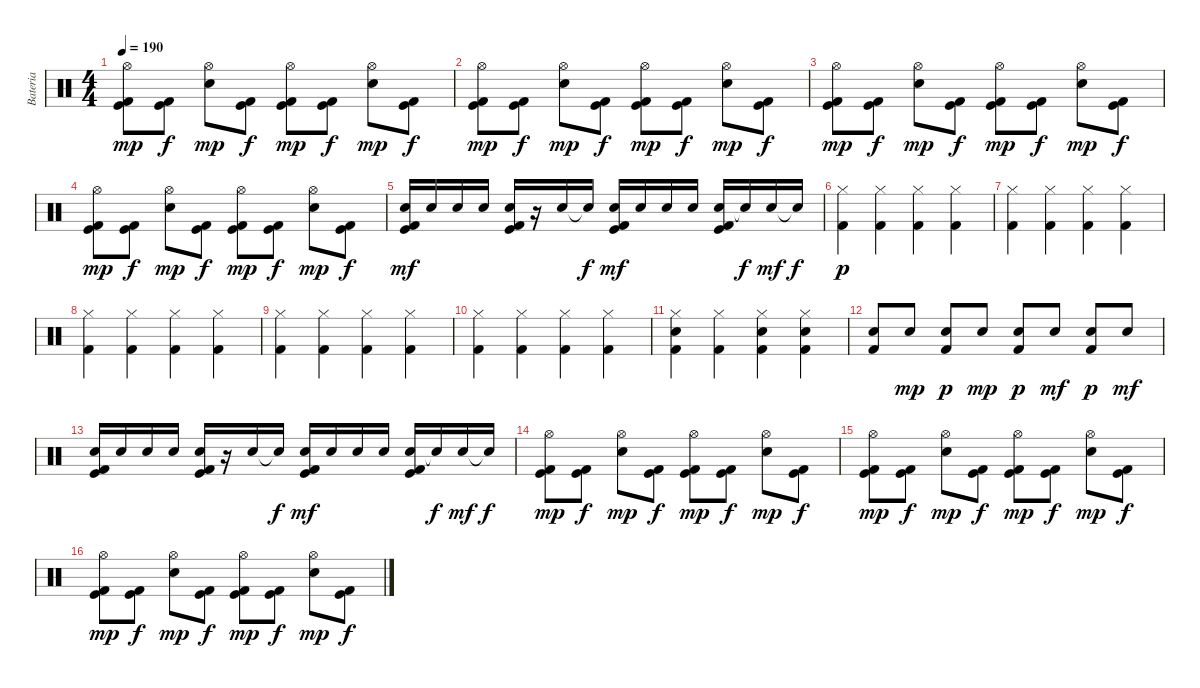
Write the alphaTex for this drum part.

\track ("Bateria" "Bateria") {instrument percussion}
\staff {score}
\articulation defaults
\ts (4 4)
\tempo 190
\clef neutral
\ks c
("Kick (hit) 2" "Kick (hit)" "Hi-Hat (open)").8{dy mp} ("Kick (hit)" "Kick (hit) 2").8{dy f} ("Electric Snare (hit)" "Hi-Hat (open)").8{dy mp} ("Kick (hit) 2" "Kick (hit)").8{dy f} ("Kick (hit) 2" "Kick (hit)" "Hi-Hat (open)").8{dy mp} ("Kick (hit)" "Kick (hit) 2").8{dy f} ("Electric Snare (hit)" "Hi-Hat (open)").8{dy mp} ("Kick (hit)" "Kick (hit) 2").8{dy f} |
("Kick (hit) 2" "Kick (hit)" "Hi-Hat (open)").8{dy mp} ("Kick (hit)" "Kick (hit) 2").8{dy f} ("Electric Snare (hit)" "Hi-Hat (open)").8{dy mp} ("Kick (hit) 2" "Kick (hit)").8{dy f} ("Kick (hit) 2" "Kick (hit)" "Hi-Hat (open)").8{dy mp} ("Kick (hit)" "Kick (hit) 2").8{dy f} ("Electric Snare (hit)" "Hi-Hat (open)").8{dy mp} ("Kick (hit)" "Kick (hit) 2").8{dy f} |
("Kick (hit) 2" "Kick (hit)" "Hi-Hat (open)").8{dy mp} ("Kick (hit)" "Kick (hit) 2").8{dy f} ("Electric Snare (hit)" "Hi-Hat (open)").8{dy mp} ("Kick (hit) 2" "Kick (hit)").8{dy f} ("Kick (hit) 2" "Kick (hit)" "Hi-Hat (open)").8{dy mp} ("Kick (hit)" "Kick (hit) 2").8{dy f} ("Electric Snare (hit)" "Hi-Hat (open)").8{dy mp} ("Kick (hit)" "Kick (hit) 2").8{dy f} |
("Kick (hit) 2" "Kick (hit)" "Hi-Hat (open)").8{dy mp} ("Kick (hit)" "Kick (hit) 2").8{dy f} ("Electric Snare (hit)" "Hi-Hat (open)").8{dy mp} ("Kick (hit) 2" "Kick (hit)").8{dy f} ("Kick (hit) 2" "Kick (hit)" "Hi-Hat (open)").8{dy mp} ("Kick (hit)" "Kick (hit) 2").8{dy f} ("Electric Snare (hit)" "Hi-Hat (open)").8{dy mp} ("Kick (hit)" "Kick (hit) 2").8{dy f} |
("Electric Snare (hit)" "Kick (hit)" "Kick (hit) 2").16{dy mf} "Electric Snare (hit)".16 "Electric Snare (hit)".16 "Electric Snare (hit)".16 ("Electric Snare (hit)" "Kick (hit)" "Kick (hit) 2").16 r.16 "Electric Snare (hit)".16 "Electric Snare (hit)"{t}.16{dy f} ("Electric Snare (hit)" "Kick (hit)" "Kick (hit) 2").16{dy mf} "Electric Snare (hit)".16 "Electric Snare (hit)".16 "Electric Snare (hit)".16 ("Electric Snare (hit)" "Kick (hit)" "Kick (hit) 2").16 "Electric Snare (hit)"{t}.16{dy f} "Electric Snare (hit)".16{dy mf} "Electric Snare (hit)"{t}.16{dy f} |
("Hi-Hat (closed)" "Kick (hit) 2").4{dy p} ("Hi-Hat (closed)" "Kick (hit) 2").4 ("Hi-Hat (closed)" "Kick (hit) 2").4 ("Hi-Hat (closed)" "Kick (hit) 2").4 |
("Hi-Hat (closed)" "Kick (hit) 2").4 ("Hi-Hat (closed)" "Kick (hit) 2").4 ("Hi-Hat (closed)" "Kick (hit) 2").4 ("Hi-Hat (closed)" "Kick (hit) 2").4 |
("Hi-Hat (closed)" "Kick (hit) 2").4 ("Hi-Hat (closed)" "Kick (hit) 2").4 ("Hi-Hat (closed)" "Kick (hit) 2").4 ("Hi-Hat (closed)" "Kick (hit) 2").4 |
("Hi-Hat (closed)" "Kick (hit) 2").4 ("Hi-Hat (closed)" "Kick (hit) 2").4 ("Hi-Hat (closed)" "Kick (hit) 2").4 ("Hi-Hat (closed)" "Kick (hit) 2").4 |
("Hi-Hat (closed)" "Kick (hit) 2").4 ("Hi-Hat (closed)" "Kick (hit) 2").4 ("Hi-Hat (closed)" "Kick (hit) 2").4 ("Hi-Hat (closed)" "Kick (hit) 2").4 |
("Hi-Hat (closed)" "Electric Snare (hit)" "Kick (hit) 2").4 ("Hi-Hat (closed)" "Kick (hit) 2").4 ("Hi-Hat (closed)" "Electric Snare (hit)" "Kick (hit) 2").4 ("Hi-Hat (closed)" "Electric Snare (hit)" "Kick (hit) 2").4 |
("Electric Snare (hit)" "Kick (hit) 2").8 "Electric Snare (hit)".8{dy mp} ("Electric Snare (hit)" "Kick (hit) 2").8{dy p} "Electric Snare (hit)".8{dy mp} ("Electric Snare (hit)" "Kick (hit) 2").8{dy p} "Electric Snare (hit)".8{dy mf} ("Electric Snare (hit)" "Kick (hit) 2").8{dy p} "Electric Snare (hit)".8{dy mf} |
("Electric Snare (hit)" "Kick (hit)" "Kick (hit) 2").16 "Electric Snare (hit)".16 "Electric Snare (hit)".16 "Electric Snare (hit)".16 ("Electric Snare (hit)" "Kick (hit)" "Kick (hit) 2").16 r.16 "Electric Snare (hit)".16 "Electric Snare (hit)"{t}.16{dy f} ("Electric Snare (hit)" "Kick (hit)" "Kick (hit) 2").16{dy mf} "Electric Snare (hit)".16 "Electric Snare (hit)".16 "Electric Snare (hit)".16 ("Electric Snare (hit)" "Kick (hit)" "Kick (hit) 2").16 "Electric Snare (hit)"{t}.16{dy f} "Electric Snare (hit)".16{dy mf} "Electric Snare (hit)"{t}.16{dy f} |
("Kick (hit) 2" "Kick (hit)" "Hi-Hat (open)").8{dy mp} ("Kick (hit)" "Kick (hit) 2").8{dy f} ("Electric Snare (hit)" "Hi-Hat (open)").8{dy mp} ("Kick (hit) 2" "Kick (hit)").8{dy f} ("Kick (hit) 2" "Kick (hit)" "Hi-Hat (open)").8{dy mp} ("Kick (hit)" "Kick (hit) 2").8{dy f} ("Electric Snare (hit)" "Hi-Hat (open)").8{dy mp} ("Kick (hit)" "Kick (hit) 2").8{dy f} |
("Kick (hit) 2" "Kick (hit)" "Hi-Hat (open)").8{dy mp} ("Kick (hit)" "Kick (hit) 2").8{dy f} ("Electric Snare (hit)" "Hi-Hat (open)").8{dy mp} ("Kick (hit) 2" "Kick (hit)").8{dy f} ("Kick (hit) 2" "Kick (hit)" "Hi-Hat (open)").8{dy mp} ("Kick (hit)" "Kick (hit) 2").8{dy f} ("Electric Snare (hit)" "Hi-Hat (open)").8{dy mp} ("Kick (hit)" "Kick (hit) 2").8{dy f} |
("Kick (hit) 2" "Kick (hit)" "Hi-Hat (open)").8{dy mp} ("Kick (hit)" "Kick (hit) 2").8{dy f} ("Electric Snare (hit)" "Hi-Hat (open)").8{dy mp} ("Kick (hit) 2" "Kick (hit)").8{dy f} ("Kick (hit) 2" "Kick (hit)" "Hi-Hat (open)").8{dy mp} ("Kick (hit)" "Kick (hit) 2").8{dy f} ("Electric Snare (hit)" "Hi-Hat (open)").8{dy mp} ("Kick (hit)" "Kick (hit) 2").8{dy f}
